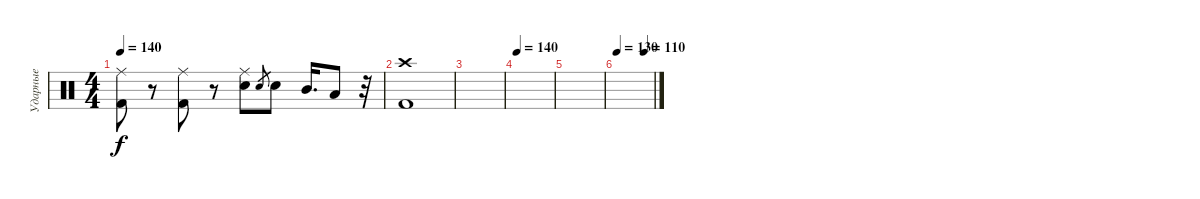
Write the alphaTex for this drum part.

\track ("Ударные" "Ударные") {instrument percussion}
\staff {score}
\articulation defaults
\ts (4 4)
\tempo 140
\clef neutral
\ks c
("Kick (hit) 2" "Ride (middle)").8{dy f} r.8 ("Ride (middle)" "Kick (hit) 2").8 r.8 ("Electric Snare (hit)" "Ride (middle)").8 "Electric Snare (hit)".8{gr} "Electric Snare (hit)".8 "Mid Tom (hit)".16{d} "Low Tom (hit)".8 r.32 |
("Kick (hit) 2" "Crash high (hit)").1 |
|
\tempo 140
|
|
\tempo 130
\tempo (110 0.75)
